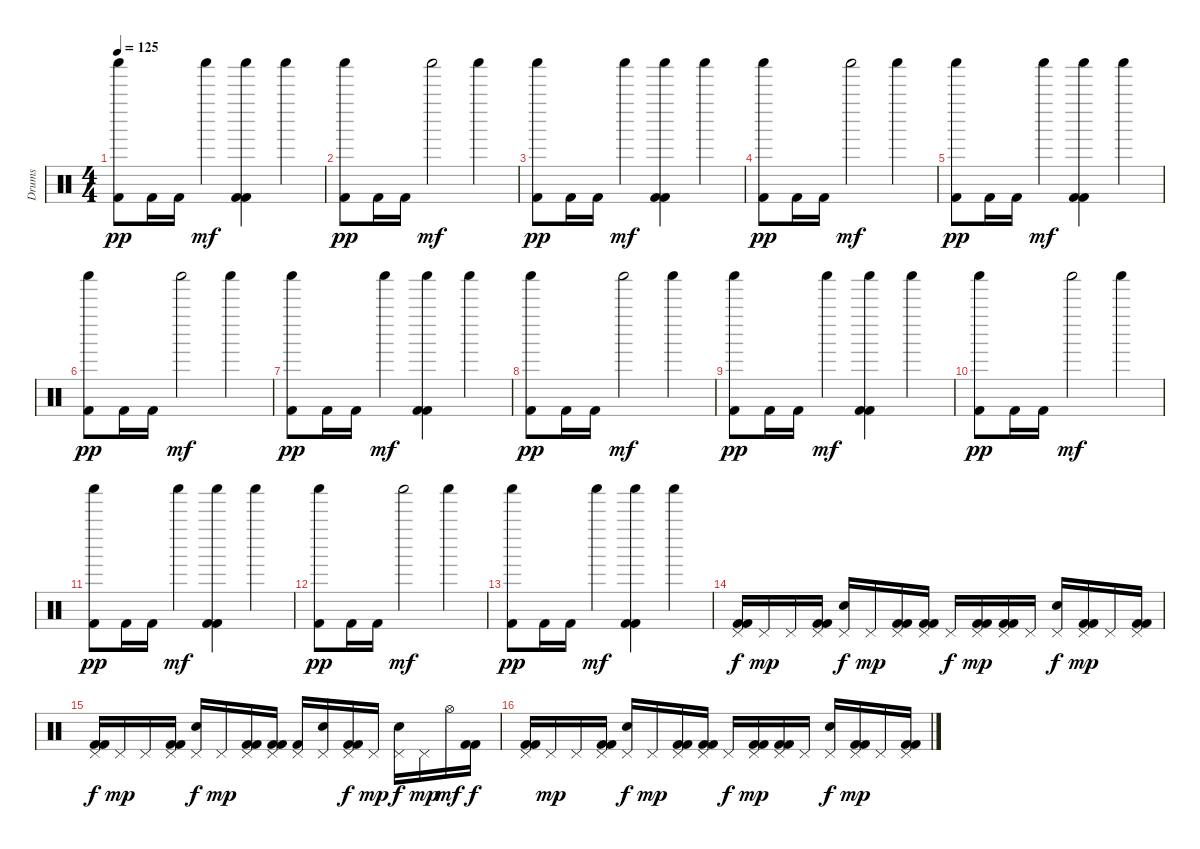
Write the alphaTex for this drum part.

\track ("Drums" "Drums") {instrument percussion}
\staff {score}
\articulation defaults
\ts (4 4)
\tempo 125
\clef neutral
\ks c
("Shaker (hit)" "Kick (hit) 2").8{dy pp} "Kick (hit) 2".16 "Kick (hit) 2".16 "Shaker (hit)".4{dy mf} ("Shaker (hit)" "Kick (hit) 2" "Kick (hit) 2").4 "Shaker (hit)".4 |
("Shaker (hit)" "Kick (hit) 2").8{dy pp} "Kick (hit) 2".16 "Kick (hit) 2".16 "Shaker (hit)".2{dy mf} "Shaker (hit)".4 |
("Shaker (hit)" "Kick (hit) 2").8{dy pp} "Kick (hit) 2".16 "Kick (hit) 2".16 "Shaker (hit)".4{dy mf} ("Shaker (hit)" "Kick (hit) 2" "Kick (hit) 2").4 "Shaker (hit)".4 |
("Shaker (hit)" "Kick (hit) 2").8{dy pp} "Kick (hit) 2".16 "Kick (hit) 2".16 "Shaker (hit)".2{dy mf} "Shaker (hit)".4 |
("Shaker (hit)" "Kick (hit) 2").8{dy pp} "Kick (hit) 2".16 "Kick (hit) 2".16 "Shaker (hit)".4{dy mf} ("Shaker (hit)" "Kick (hit) 2" "Kick (hit) 2").4 "Shaker (hit)".4 |
("Shaker (hit)" "Kick (hit) 2").8{dy pp} "Kick (hit) 2".16 "Kick (hit) 2".16 "Shaker (hit)".2{dy mf} "Shaker (hit)".4 |
("Shaker (hit)" "Kick (hit) 2").8{dy pp} "Kick (hit) 2".16 "Kick (hit) 2".16 "Shaker (hit)".4{dy mf} ("Shaker (hit)" "Kick (hit) 2" "Kick (hit) 2").4 "Shaker (hit)".4 |
("Shaker (hit)" "Kick (hit) 2").8{dy pp} "Kick (hit) 2".16 "Kick (hit) 2".16 "Shaker (hit)".2{dy mf} "Shaker (hit)".4 |
("Shaker (hit)" "Kick (hit) 2").8{dy pp} "Kick (hit) 2".16 "Kick (hit) 2".16 "Shaker (hit)".4{dy mf} ("Shaker (hit)" "Kick (hit) 2" "Kick (hit) 2").4 "Shaker (hit)".4 |
("Shaker (hit)" "Kick (hit) 2").8{dy pp} "Kick (hit) 2".16 "Kick (hit) 2".16 "Shaker (hit)".2{dy mf} "Shaker (hit)".4 |
("Shaker (hit)" "Kick (hit) 2").8{dy pp} "Kick (hit) 2".16 "Kick (hit) 2".16 "Shaker (hit)".4{dy mf} ("Shaker (hit)" "Kick (hit) 2" "Kick (hit) 2").4 "Shaker (hit)".4 |
("Shaker (hit)" "Kick (hit) 2").8{dy pp} "Kick (hit) 2".16 "Kick (hit) 2".16 "Shaker (hit)".2{dy mf} "Shaker (hit)".4 |
("Shaker (hit)" "Kick (hit) 2").8{dy pp} "Kick (hit) 2".16 "Kick (hit) 2".16 "Shaker (hit)".4{dy mf} ("Shaker (hit)" "Kick (hit) 2" "Kick (hit) 2").4 "Shaker (hit)".4 |
("Pedal Hi-Hat (hit)" "Kick (hit) 2" "Kick (hit) 2").16{dy f} "Pedal Hi-Hat (hit)".16{dy mp} "Pedal Hi-Hat (hit)".16 ("Pedal Hi-Hat (hit)" "Kick (hit) 2" "Kick (hit) 2").16 ("Pedal Hi-Hat (hit)" "Electric Snare (hit)").16{dy f} "Pedal Hi-Hat (hit)".16{dy mp} ("Pedal Hi-Hat (hit)" "Kick (hit) 2" "Kick (hit) 2").16 ("Pedal Hi-Hat (hit)" "Kick (hit) 2" "Kick (hit) 2").16 "Pedal Hi-Hat (hit)".16{dy f} ("Pedal Hi-Hat (hit)" "Kick (hit) 2" "Kick (hit) 2").16{dy mp} ("Pedal Hi-Hat (hit)" "Kick (hit) 2" "Kick (hit) 2").16 "Pedal Hi-Hat (hit)".16 ("Pedal Hi-Hat (hit)" "Electric Snare (hit)").16{dy f} ("Pedal Hi-Hat (hit)" "Kick (hit) 2" "Kick (hit) 2").16{dy mp} "Pedal Hi-Hat (hit)".16 ("Pedal Hi-Hat (hit)" "Kick (hit) 2" "Kick (hit) 2").16 |
("Pedal Hi-Hat (hit)" "Kick (hit) 2" "Kick (hit) 2").16{dy f} "Pedal Hi-Hat (hit)".16{dy mp} "Pedal Hi-Hat (hit)".16 ("Pedal Hi-Hat (hit)" "Kick (hit) 2" "Kick (hit) 2").16 ("Pedal Hi-Hat (hit)" "Electric Snare (hit)").16{dy f} "Pedal Hi-Hat (hit)".16{dy mp} ("Pedal Hi-Hat (hit)" "Kick (hit) 2" "Kick (hit) 2").16 ("Pedal Hi-Hat (hit)" "Kick (hit) 2" "Kick (hit) 2").16 ("Pedal Hi-Hat (hit)" "Kick (hit) 2").16 ("Pedal Hi-Hat (hit)" "Electric Snare (hit)").16 ("Pedal Hi-Hat (hit)" "Kick (hit) 2" "Kick (hit) 2").16{dy f} "Pedal Hi-Hat (hit)".16{dy mp} ("Pedal Hi-Hat (hit)" "Electric Snare (hit)").16{dy f} "Pedal Hi-Hat (hit)".16{dy mp} "Hi-Hat (open)".16{dy mf} ("Kick (hit) 2" "Kick (hit) 2").16{dy f} |
("Pedal Hi-Hat (hit)" "Kick (hit) 2" "Kick (hit) 2").16 "Pedal Hi-Hat (hit)".16{dy mp} "Pedal Hi-Hat (hit)".16 ("Pedal Hi-Hat (hit)" "Kick (hit) 2" "Kick (hit) 2").16 ("Pedal Hi-Hat (hit)" "Electric Snare (hit)").16{dy f} "Pedal Hi-Hat (hit)".16{dy mp} ("Pedal Hi-Hat (hit)" "Kick (hit) 2" "Kick (hit) 2").16 ("Pedal Hi-Hat (hit)" "Kick (hit) 2" "Kick (hit) 2").16 "Pedal Hi-Hat (hit)".16{dy f} ("Pedal Hi-Hat (hit)" "Kick (hit) 2" "Kick (hit) 2").16{dy mp} ("Pedal Hi-Hat (hit)" "Kick (hit) 2" "Kick (hit) 2").16 "Pedal Hi-Hat (hit)".16 ("Pedal Hi-Hat (hit)" "Electric Snare (hit)").16{dy f} ("Pedal Hi-Hat (hit)" "Kick (hit) 2" "Kick (hit) 2").16{dy mp} "Pedal Hi-Hat (hit)".16 ("Pedal Hi-Hat (hit)" "Kick (hit) 2" "Kick (hit) 2").16
